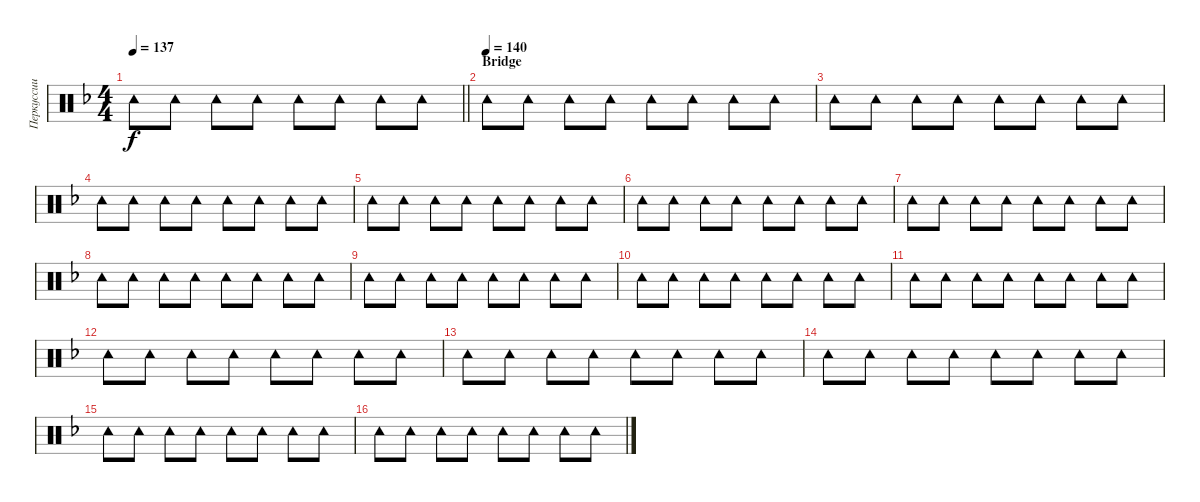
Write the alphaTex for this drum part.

\track ("Перкуссии" "Перкуссии") {instrument percussion}
\staff {score}
\articulation defaults
\ts (4 4)
\tempo 137
\clef neutral
\barLineRight lightlight
\ks dminor "Tambourine (hit)".8{dy f} "Tambourine (hit)".8 "Tambourine (hit)".8 "Tambourine (hit)".8 "Tambourine (hit)".8 "Tambourine (hit)".8 "Tambourine (hit)".8 "Tambourine (hit)".8
|
\section ("" "Bridge")
\tempo (140)
"Tambourine (hit)".8 "Tambourine (hit)".8 "Tambourine (hit)".8 "Tambourine (hit)".8 "Tambourine (hit)".8 "Tambourine (hit)".8 "Tambourine (hit)".8 "Tambourine (hit)".8 |
"Tambourine (hit)".8 "Tambourine (hit)".8 "Tambourine (hit)".8 "Tambourine (hit)".8 "Tambourine (hit)".8 "Tambourine (hit)".8 "Tambourine (hit)".8 "Tambourine (hit)".8 |
"Tambourine (hit)".8 "Tambourine (hit)".8 "Tambourine (hit)".8 "Tambourine (hit)".8 "Tambourine (hit)".8 "Tambourine (hit)".8 "Tambourine (hit)".8 "Tambourine (hit)".8 |
"Tambourine (hit)".8 "Tambourine (hit)".8 "Tambourine (hit)".8 "Tambourine (hit)".8 "Tambourine (hit)".8 "Tambourine (hit)".8 "Tambourine (hit)".8 "Tambourine (hit)".8 |
"Tambourine (hit)".8 "Tambourine (hit)".8 "Tambourine (hit)".8 "Tambourine (hit)".8 "Tambourine (hit)".8 "Tambourine (hit)".8 "Tambourine (hit)".8 "Tambourine (hit)".8 |
"Tambourine (hit)".8 "Tambourine (hit)".8 "Tambourine (hit)".8 "Tambourine (hit)".8 "Tambourine (hit)".8 "Tambourine (hit)".8 "Tambourine (hit)".8 "Tambourine (hit)".8 |
"Tambourine (hit)".8 "Tambourine (hit)".8 "Tambourine (hit)".8 "Tambourine (hit)".8 "Tambourine (hit)".8 "Tambourine (hit)".8 "Tambourine (hit)".8 "Tambourine (hit)".8 |
"Tambourine (hit)".8 "Tambourine (hit)".8 "Tambourine (hit)".8 "Tambourine (hit)".8 "Tambourine (hit)".8 "Tambourine (hit)".8 "Tambourine (hit)".8 "Tambourine (hit)".8 |
"Tambourine (hit)".8 "Tambourine (hit)".8 "Tambourine (hit)".8 "Tambourine (hit)".8 "Tambourine (hit)".8 "Tambourine (hit)".8 "Tambourine (hit)".8 "Tambourine (hit)".8 |
"Tambourine (hit)".8 "Tambourine (hit)".8 "Tambourine (hit)".8 "Tambourine (hit)".8 "Tambourine (hit)".8 "Tambourine (hit)".8 "Tambourine (hit)".8 "Tambourine (hit)".8 |
"Tambourine (hit)".8 "Tambourine (hit)".8 "Tambourine (hit)".8 "Tambourine (hit)".8 "Tambourine (hit)".8 "Tambourine (hit)".8 "Tambourine (hit)".8 "Tambourine (hit)".8 |
"Tambourine (hit)".8 "Tambourine (hit)".8 "Tambourine (hit)".8 "Tambourine (hit)".8 "Tambourine (hit)".8 "Tambourine (hit)".8 "Tambourine (hit)".8 "Tambourine (hit)".8 |
"Tambourine (hit)".8 "Tambourine (hit)".8 "Tambourine (hit)".8 "Tambourine (hit)".8 "Tambourine (hit)".8 "Tambourine (hit)".8 "Tambourine (hit)".8 "Tambourine (hit)".8 |
"Tambourine (hit)".8 "Tambourine (hit)".8 "Tambourine (hit)".8 "Tambourine (hit)".8 "Tambourine (hit)".8 "Tambourine (hit)".8 "Tambourine (hit)".8 "Tambourine (hit)".8 |
"Tambourine (hit)".8 "Tambourine (hit)".8 "Tambourine (hit)".8 "Tambourine (hit)".8 "Tambourine (hit)".8 "Tambourine (hit)".8 "Tambourine (hit)".8 "Tambourine (hit)".8
